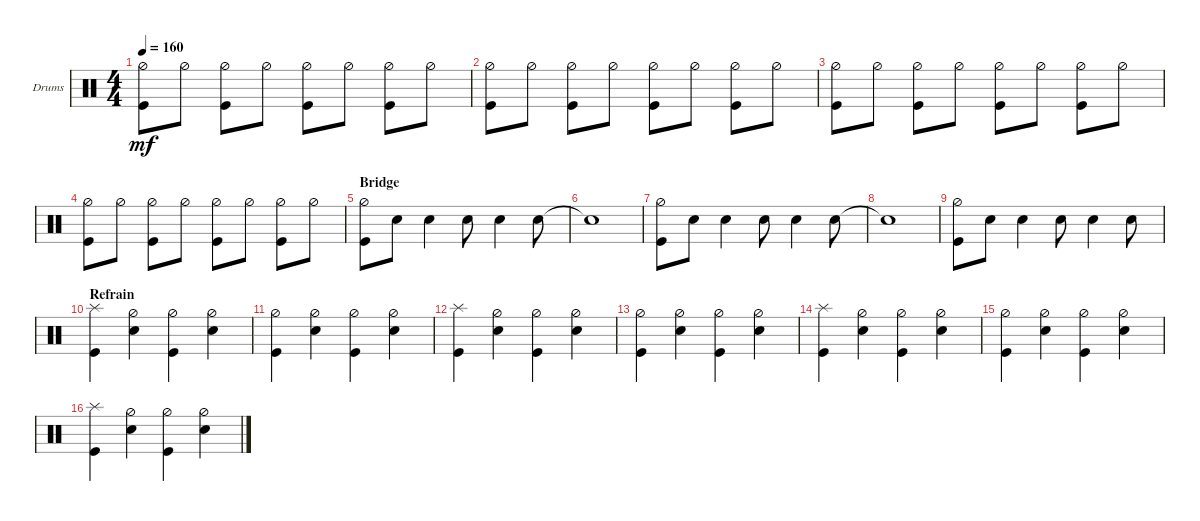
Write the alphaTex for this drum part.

\defaultSystemsLayout 4
\bracketExtendMode groupsimilarinstruments
\firstSystemTrackNameOrientation horizontal
\otherSystemsTrackNameOrientation horizontal
\track ("Drumkit" "Drums") {instrument percussion}
\staff {score}
\articulation defaults
\ts (4 4)
\tempo 160
\clef neutral
\ks c
("Hi-Hat (half)" "Kick (hit)").8{dy mf} "Hi-Hat (half)".8 ("Hi-Hat (half)" "Kick (hit)").8 "Hi-Hat (half)".8 ("Hi-Hat (half)" "Kick (hit)").8 "Hi-Hat (half)".8 ("Hi-Hat (half)" "Kick (hit)").8 "Hi-Hat (half)".8 |
("Hi-Hat (half)" "Kick (hit)").8 "Hi-Hat (half)".8 ("Hi-Hat (half)" "Kick (hit)").8 "Hi-Hat (half)".8 ("Hi-Hat (half)" "Kick (hit)").8 "Hi-Hat (half)".8 ("Hi-Hat (half)" "Kick (hit)").8 "Hi-Hat (half)".8 |
("Hi-Hat (half)" "Kick (hit)").8 "Hi-Hat (half)".8 ("Hi-Hat (half)" "Kick (hit)").8 "Hi-Hat (half)".8 ("Hi-Hat (half)" "Kick (hit)").8 "Hi-Hat (half)".8 ("Hi-Hat (half)" "Kick (hit)").8 "Hi-Hat (half)".8 |
("Hi-Hat (half)" "Kick (hit)").8 "Hi-Hat (half)".8 ("Hi-Hat (half)" "Kick (hit)").8 "Hi-Hat (half)".8 ("Hi-Hat (half)" "Kick (hit)").8 "Hi-Hat (half)".8 ("Hi-Hat (half)" "Kick (hit)").8 "Hi-Hat (half)".8 |
\section ("" "Bridge")
("Hi-Hat (half)" "Kick (hit)").8 "Snare (hit) 2".8 "Snare (hit) 2".4 "Snare (hit) 2".8 "Snare (hit) 2".4 "Snare (hit) 2".8 |
"Snare (hit) 2"{t}.1 |
("Hi-Hat (half)" "Kick (hit)").8 "Snare (hit) 2".8 "Snare (hit) 2".4 "Snare (hit) 2".8 "Snare (hit) 2".4 "Snare (hit) 2".8 |
"Snare (hit) 2"{t}.1 |
("Hi-Hat (half)" "Kick (hit)").8 "Snare (hit) 2".8 "Snare (hit) 2".4 "Snare (hit) 2".8 "Snare (hit) 2".4 "Snare (hit) 2".8 |
\section ("" "Refrain")
("Kick (hit)" "Splash (hit)").4 ("Hi-Hat (half)" "Snare (hit) 2").4 ("Hi-Hat (half)" "Kick (hit)").4 ("Hi-Hat (half)" "Snare (hit) 2").4 |
("Hi-Hat (half)" "Kick (hit)").4 ("Hi-Hat (half)" "Snare (hit) 2").4 ("Hi-Hat (half)" "Kick (hit)").4 ("Hi-Hat (half)" "Snare (hit) 2").4 |
("Kick (hit)" "Splash (hit)").4 ("Hi-Hat (half)" "Snare (hit) 2").4 ("Hi-Hat (half)" "Kick (hit)").4 ("Hi-Hat (half)" "Snare (hit) 2").4 |
("Hi-Hat (half)" "Kick (hit)").4 ("Hi-Hat (half)" "Snare (hit) 2").4 ("Hi-Hat (half)" "Kick (hit)").4 ("Hi-Hat (half)" "Snare (hit) 2").4 |
("Kick (hit)" "Splash (hit)").4 ("Hi-Hat (half)" "Snare (hit) 2").4 ("Hi-Hat (half)" "Kick (hit)").4 ("Hi-Hat (half)" "Snare (hit) 2").4 |
("Hi-Hat (half)" "Kick (hit)").4 ("Hi-Hat (half)" "Snare (hit) 2").4 ("Hi-Hat (half)" "Kick (hit)").4 ("Hi-Hat (half)" "Snare (hit) 2").4 |
("Kick (hit)" "Splash (hit)").4 ("Hi-Hat (half)" "Snare (hit) 2").4 ("Hi-Hat (half)" "Kick (hit)").4 ("Hi-Hat (half)" "Snare (hit) 2").4
